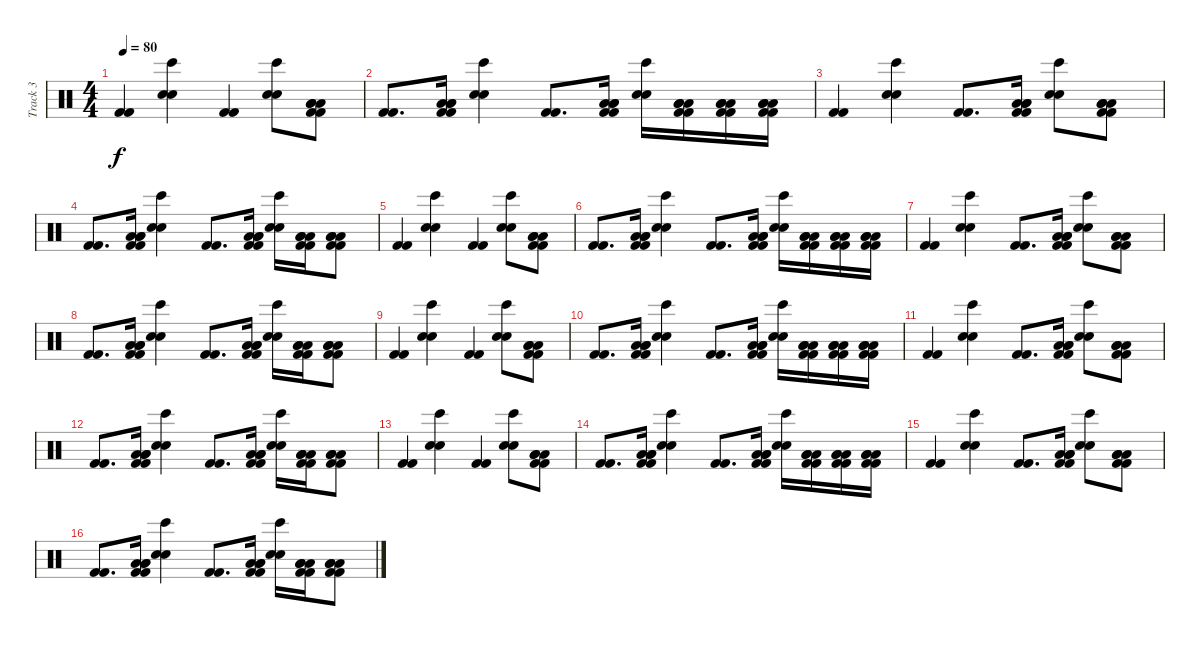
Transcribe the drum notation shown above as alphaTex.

\track ("Track 3" "Track 3") {instrument percussion}
\staff {score}
\articulation defaults
\ts (4 4)
\tempo 80
\clef neutral
\ks c
("Kick (hit) 2" "Kick (hit) 2").4{dy f} ("Hand Clap (hit)" "Hand Clap (hit)" "Bongo High (hit)").4 ("Kick (hit) 2" "Kick (hit) 2").4 ("Hand Clap (hit)" "Hand Clap (hit)" "Bongo High (hit)").8 ("Kick (hit) 2" "Kick (hit) 2" "Low Floor Tom (hit)" "Low Floor Tom (hit)" "Low Floor Tom (hit)").8 |
("Kick (hit) 2" "Kick (hit) 2").8{d} ("Kick (hit) 2" "Kick (hit) 2" "Low Floor Tom (hit)" "Low Floor Tom (hit)" "Low Floor Tom (hit)").16 ("Hand Clap (hit)" "Hand Clap (hit)" "Bongo High (hit)").4 ("Kick (hit) 2" "Kick (hit) 2").8{d} ("Kick (hit) 2" "Kick (hit) 2" "Low Floor Tom (hit)" "Low Floor Tom (hit)" "Low Floor Tom (hit)").16 ("Hand Clap (hit)" "Hand Clap (hit)" "Bongo High (hit)").16 ("Kick (hit) 2" "Kick (hit) 2" "Low Floor Tom (hit)" "Low Floor Tom (hit)" "Low Floor Tom (hit)").16 ("Kick (hit) 2" "Kick (hit) 2" "Low Floor Tom (hit)" "Low Floor Tom (hit)" "Low Floor Tom (hit)").16 ("Kick (hit) 2" "Kick (hit) 2" "Low Floor Tom (hit)" "Low Floor Tom (hit)" "Low Floor Tom (hit)").16 |
("Kick (hit) 2" "Kick (hit) 2").4 ("Hand Clap (hit)" "Hand Clap (hit)" "Bongo High (hit)").4 ("Kick (hit) 2" "Kick (hit) 2").8{d} ("Kick (hit) 2" "Kick (hit) 2" "Low Floor Tom (hit)" "Low Floor Tom (hit)" "Low Floor Tom (hit)").16 ("Hand Clap (hit)" "Hand Clap (hit)" "Bongo High (hit)").8 ("Kick (hit) 2" "Kick (hit) 2" "Low Floor Tom (hit)" "Low Floor Tom (hit)" "Low Floor Tom (hit)").8 |
("Kick (hit) 2" "Kick (hit) 2").8{d} ("Kick (hit) 2" "Kick (hit) 2" "Low Floor Tom (hit)" "Low Floor Tom (hit)" "Low Floor Tom (hit)").16 ("Hand Clap (hit)" "Hand Clap (hit)" "Bongo High (hit)").4 ("Kick (hit) 2" "Kick (hit) 2").8{d} ("Kick (hit) 2" "Kick (hit) 2" "Low Floor Tom (hit)" "Low Floor Tom (hit)" "Low Floor Tom (hit)").16 ("Hand Clap (hit)" "Hand Clap (hit)" "Bongo High (hit)").16 ("Kick (hit) 2" "Kick (hit) 2" "Low Floor Tom (hit)" "Low Floor Tom (hit)" "Low Floor Tom (hit)").16 ("Kick (hit) 2" "Kick (hit) 2" "Low Floor Tom (hit)" "Low Floor Tom (hit)" "Low Floor Tom (hit)").8 |
("Kick (hit) 2" "Kick (hit) 2").4 ("Hand Clap (hit)" "Hand Clap (hit)" "Bongo High (hit)").4 ("Kick (hit) 2" "Kick (hit) 2").4 ("Hand Clap (hit)" "Hand Clap (hit)" "Bongo High (hit)").8 ("Kick (hit) 2" "Kick (hit) 2" "Low Floor Tom (hit)" "Low Floor Tom (hit)" "Low Floor Tom (hit)").8 |
("Kick (hit) 2" "Kick (hit) 2").8{d} ("Kick (hit) 2" "Kick (hit) 2" "Low Floor Tom (hit)" "Low Floor Tom (hit)" "Low Floor Tom (hit)").16 ("Hand Clap (hit)" "Hand Clap (hit)" "Bongo High (hit)").4 ("Kick (hit) 2" "Kick (hit) 2").8{d} ("Kick (hit) 2" "Kick (hit) 2" "Low Floor Tom (hit)" "Low Floor Tom (hit)" "Low Floor Tom (hit)").16 ("Hand Clap (hit)" "Hand Clap (hit)" "Bongo High (hit)").16 ("Kick (hit) 2" "Kick (hit) 2" "Low Floor Tom (hit)" "Low Floor Tom (hit)" "Low Floor Tom (hit)").16 ("Kick (hit) 2" "Kick (hit) 2" "Low Floor Tom (hit)" "Low Floor Tom (hit)" "Low Floor Tom (hit)").16 ("Kick (hit) 2" "Kick (hit) 2" "Low Floor Tom (hit)" "Low Floor Tom (hit)" "Low Floor Tom (hit)").16 |
("Kick (hit) 2" "Kick (hit) 2").4 ("Hand Clap (hit)" "Hand Clap (hit)" "Bongo High (hit)").4 ("Kick (hit) 2" "Kick (hit) 2").8{d} ("Kick (hit) 2" "Kick (hit) 2" "Low Floor Tom (hit)" "Low Floor Tom (hit)" "Low Floor Tom (hit)").16 ("Hand Clap (hit)" "Hand Clap (hit)" "Bongo High (hit)").8 ("Kick (hit) 2" "Kick (hit) 2" "Low Floor Tom (hit)" "Low Floor Tom (hit)" "Low Floor Tom (hit)").8 |
("Kick (hit) 2" "Kick (hit) 2").8{d} ("Kick (hit) 2" "Kick (hit) 2" "Low Floor Tom (hit)" "Low Floor Tom (hit)" "Low Floor Tom (hit)").16 ("Hand Clap (hit)" "Hand Clap (hit)" "Bongo High (hit)").4 ("Kick (hit) 2" "Kick (hit) 2").8{d} ("Kick (hit) 2" "Kick (hit) 2" "Low Floor Tom (hit)" "Low Floor Tom (hit)" "Low Floor Tom (hit)").16 ("Hand Clap (hit)" "Hand Clap (hit)" "Bongo High (hit)").16 ("Kick (hit) 2" "Kick (hit) 2" "Low Floor Tom (hit)" "Low Floor Tom (hit)" "Low Floor Tom (hit)").16 ("Kick (hit) 2" "Kick (hit) 2" "Low Floor Tom (hit)" "Low Floor Tom (hit)" "Low Floor Tom (hit)").8 |
("Kick (hit) 2" "Kick (hit) 2").4 ("Hand Clap (hit)" "Hand Clap (hit)" "Bongo High (hit)").4 ("Kick (hit) 2" "Kick (hit) 2").4 ("Hand Clap (hit)" "Hand Clap (hit)" "Bongo High (hit)").8 ("Kick (hit) 2" "Kick (hit) 2" "Low Floor Tom (hit)" "Low Floor Tom (hit)" "Low Floor Tom (hit)").8 |
("Kick (hit) 2" "Kick (hit) 2").8{d} ("Kick (hit) 2" "Kick (hit) 2" "Low Floor Tom (hit)" "Low Floor Tom (hit)" "Low Floor Tom (hit)").16 ("Hand Clap (hit)" "Hand Clap (hit)" "Bongo High (hit)").4 ("Kick (hit) 2" "Kick (hit) 2").8{d} ("Kick (hit) 2" "Kick (hit) 2" "Low Floor Tom (hit)" "Low Floor Tom (hit)" "Low Floor Tom (hit)").16 ("Hand Clap (hit)" "Hand Clap (hit)" "Bongo High (hit)").16 ("Kick (hit) 2" "Kick (hit) 2" "Low Floor Tom (hit)" "Low Floor Tom (hit)" "Low Floor Tom (hit)").16 ("Kick (hit) 2" "Kick (hit) 2" "Low Floor Tom (hit)" "Low Floor Tom (hit)" "Low Floor Tom (hit)").16 ("Kick (hit) 2" "Kick (hit) 2" "Low Floor Tom (hit)" "Low Floor Tom (hit)" "Low Floor Tom (hit)").16 |
("Kick (hit) 2" "Kick (hit) 2").4 ("Hand Clap (hit)" "Hand Clap (hit)" "Bongo High (hit)").4 ("Kick (hit) 2" "Kick (hit) 2").8{d} ("Kick (hit) 2" "Kick (hit) 2" "Low Floor Tom (hit)" "Low Floor Tom (hit)" "Low Floor Tom (hit)").16 ("Hand Clap (hit)" "Hand Clap (hit)" "Bongo High (hit)").8 ("Kick (hit) 2" "Kick (hit) 2" "Low Floor Tom (hit)" "Low Floor Tom (hit)" "Low Floor Tom (hit)").8 |
("Kick (hit) 2" "Kick (hit) 2").8{d} ("Kick (hit) 2" "Kick (hit) 2" "Low Floor Tom (hit)" "Low Floor Tom (hit)" "Low Floor Tom (hit)").16 ("Hand Clap (hit)" "Hand Clap (hit)" "Bongo High (hit)").4 ("Kick (hit) 2" "Kick (hit) 2").8{d} ("Kick (hit) 2" "Kick (hit) 2" "Low Floor Tom (hit)" "Low Floor Tom (hit)" "Low Floor Tom (hit)").16 ("Hand Clap (hit)" "Hand Clap (hit)" "Bongo High (hit)").16 ("Kick (hit) 2" "Kick (hit) 2" "Low Floor Tom (hit)" "Low Floor Tom (hit)" "Low Floor Tom (hit)").16 ("Kick (hit) 2" "Kick (hit) 2" "Low Floor Tom (hit)" "Low Floor Tom (hit)" "Low Floor Tom (hit)").8 |
("Kick (hit) 2" "Kick (hit) 2").4 ("Hand Clap (hit)" "Hand Clap (hit)" "Bongo High (hit)").4 ("Kick (hit) 2" "Kick (hit) 2").4 ("Hand Clap (hit)" "Hand Clap (hit)" "Bongo High (hit)").8 ("Kick (hit) 2" "Kick (hit) 2" "Low Floor Tom (hit)" "Low Floor Tom (hit)" "Low Floor Tom (hit)").8 |
("Kick (hit) 2" "Kick (hit) 2").8{d} ("Kick (hit) 2" "Kick (hit) 2" "Low Floor Tom (hit)" "Low Floor Tom (hit)" "Low Floor Tom (hit)").16 ("Hand Clap (hit)" "Hand Clap (hit)" "Bongo High (hit)").4 ("Kick (hit) 2" "Kick (hit) 2").8{d} ("Kick (hit) 2" "Kick (hit) 2" "Low Floor Tom (hit)" "Low Floor Tom (hit)" "Low Floor Tom (hit)").16 ("Hand Clap (hit)" "Hand Clap (hit)" "Bongo High (hit)").16 ("Kick (hit) 2" "Kick (hit) 2" "Low Floor Tom (hit)" "Low Floor Tom (hit)" "Low Floor Tom (hit)").16 ("Kick (hit) 2" "Kick (hit) 2" "Low Floor Tom (hit)" "Low Floor Tom (hit)" "Low Floor Tom (hit)").16 ("Kick (hit) 2" "Kick (hit) 2" "Low Floor Tom (hit)" "Low Floor Tom (hit)" "Low Floor Tom (hit)").16 |
("Kick (hit) 2" "Kick (hit) 2").4 ("Hand Clap (hit)" "Hand Clap (hit)" "Bongo High (hit)").4 ("Kick (hit) 2" "Kick (hit) 2").8{d} ("Kick (hit) 2" "Kick (hit) 2" "Low Floor Tom (hit)" "Low Floor Tom (hit)" "Low Floor Tom (hit)").16 ("Hand Clap (hit)" "Hand Clap (hit)" "Bongo High (hit)").8 ("Kick (hit) 2" "Kick (hit) 2" "Low Floor Tom (hit)" "Low Floor Tom (hit)" "Low Floor Tom (hit)").8 |
("Kick (hit) 2" "Kick (hit) 2").8{d} ("Kick (hit) 2" "Kick (hit) 2" "Low Floor Tom (hit)" "Low Floor Tom (hit)" "Low Floor Tom (hit)").16 ("Hand Clap (hit)" "Hand Clap (hit)" "Bongo High (hit)").4 ("Kick (hit) 2" "Kick (hit) 2").8{d} ("Kick (hit) 2" "Kick (hit) 2" "Low Floor Tom (hit)" "Low Floor Tom (hit)" "Low Floor Tom (hit)").16 ("Hand Clap (hit)" "Hand Clap (hit)" "Bongo High (hit)").16 ("Kick (hit) 2" "Kick (hit) 2" "Low Floor Tom (hit)" "Low Floor Tom (hit)" "Low Floor Tom (hit)").16 ("Kick (hit) 2" "Kick (hit) 2" "Low Floor Tom (hit)" "Low Floor Tom (hit)" "Low Floor Tom (hit)").8
